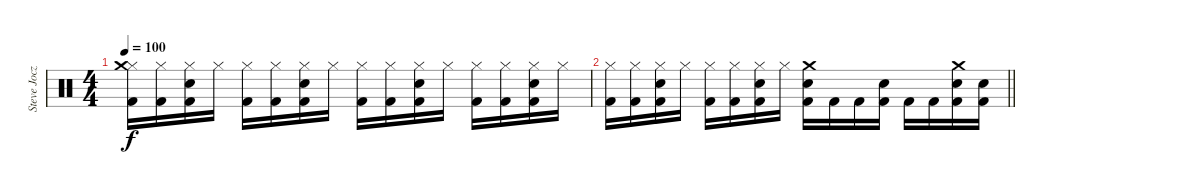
\track ("Steve Jocz <Drums>" "Steve Jocz") {instrument percussion}
\staff {score}
\articulation defaults
\ts (4 4)
\tempo 100
\clef neutral
\ks c
("Hi-Hat (closed)" "Crash medium (hit)" "Kick (hit) 2").16{dy f} ("Hi-Hat (closed)" "Kick (hit) 2").16 ("Hi-Hat (closed)" "Snare (hit) 2" "Kick (hit) 2").16 "Hi-Hat (closed)".16 ("Hi-Hat (closed)" "Kick (hit) 2").16 ("Hi-Hat (closed)" "Kick (hit) 2").16 ("Hi-Hat (closed)" "Snare (hit) 2" "Kick (hit) 2").16 "Hi-Hat (closed)".16 ("Hi-Hat (closed)" "Kick (hit) 2").16 ("Hi-Hat (closed)" "Kick (hit) 2").16 ("Hi-Hat (closed)" "Snare (hit) 2" "Kick (hit) 2").16 "Hi-Hat (closed)".16 ("Hi-Hat (closed)" "Kick (hit) 2").16 ("Hi-Hat (closed)" "Kick (hit) 2").16 ("Hi-Hat (closed)" "Snare (hit) 2" "Kick (hit) 2").16 "Hi-Hat (closed)".16 |
\barLineRight lightlight
("Hi-Hat (closed)" "Kick (hit) 2").16 ("Hi-Hat (closed)" "Kick (hit) 2").16 ("Hi-Hat (closed)" "Snare (hit) 2" "Kick (hit) 2").16 "Hi-Hat (closed)".16 ("Hi-Hat (closed)" "Kick (hit) 2").16 ("Hi-Hat (closed)" "Kick (hit) 2").16 ("Hi-Hat (closed)" "Snare (hit) 2" "Kick (hit) 2").16 "Hi-Hat (closed)".16 ("Crash medium (hit)" "Snare (hit) 2" "Kick (hit) 2").16 "Kick (hit) 2".16 "Kick (hit) 2".16 ("Snare (hit) 2" "Kick (hit) 2").16 "Kick (hit) 2".16 "Kick (hit) 2".16 ("Crash medium (hit)" "Snare (hit) 2" "Kick (hit) 2").16 ("Snare (hit) 2" "Kick (hit) 2").16
